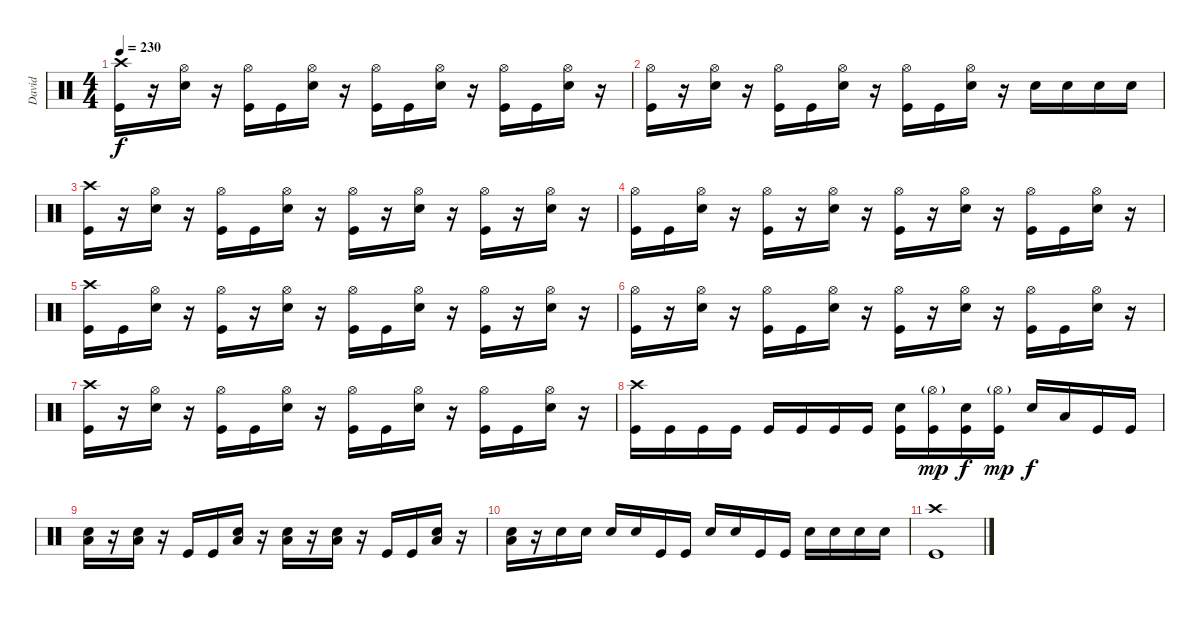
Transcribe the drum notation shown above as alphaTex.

\track ("David" "David") {instrument percussion}
\staff {score}
\articulation defaults
\ts (4 4)
\tempo 230
\clef neutral
\ks c
("Crash high (hit)" "Kick (hit)").16{dy f} r.16 ("Hi-Hat (open)" "Electric Snare (hit)").16 r.16 ("Hi-Hat (open)" "Kick (hit)").16 "Kick (hit)".16 ("Hi-Hat (open)" "Electric Snare (hit)").16 r.16 ("Hi-Hat (open)" "Kick (hit)").16 "Kick (hit)".16 ("Hi-Hat (open)" "Electric Snare (hit)").16 r.16 ("Hi-Hat (open)" "Kick (hit)").16 "Kick (hit)".16 ("Hi-Hat (open)" "Electric Snare (hit)").16 r.16 |
("Hi-Hat (open)" "Kick (hit)").16 r.16 ("Hi-Hat (open)" "Electric Snare (hit)").16 r.16 ("Hi-Hat (open)" "Kick (hit)").16 "Kick (hit)".16 ("Hi-Hat (open)" "Electric Snare (hit)").16 r.16 ("Hi-Hat (open)" "Kick (hit)").16 "Kick (hit)".16 ("Hi-Hat (open)" "Electric Snare (hit)").16 r.16 "Electric Snare (hit)".16 "Electric Snare (hit)".16 "Electric Snare (hit)".16 "Electric Snare (hit)".16 |
("Crash high (hit)" "Kick (hit)").16 r.16 ("Hi-Hat (open)" "Electric Snare (hit)").16 r.16 ("Hi-Hat (open)" "Kick (hit)").16 "Kick (hit)".16 ("Hi-Hat (open)" "Electric Snare (hit)").16 r.16 ("Hi-Hat (open)" "Kick (hit)").16 r.16 ("Hi-Hat (open)" "Electric Snare (hit)").16 r.16 ("Hi-Hat (open)" "Kick (hit)").16 r.16 ("Hi-Hat (open)" "Electric Snare (hit)").16 r.16 |
("Hi-Hat (open)" "Kick (hit)").16 "Kick (hit)".16 ("Hi-Hat (open)" "Electric Snare (hit)").16 r.16 ("Hi-Hat (open)" "Kick (hit)").16 r.16 ("Hi-Hat (open)" "Electric Snare (hit)").16 r.16 ("Hi-Hat (open)" "Kick (hit)").16 r.16 ("Hi-Hat (open)" "Electric Snare (hit)").16 r.16 ("Hi-Hat (open)" "Kick (hit)").16 "Kick (hit)".16 ("Hi-Hat (open)" "Electric Snare (hit)").16 r.16 |
("Crash high (hit)" "Kick (hit)").16 "Kick (hit)".16 ("Hi-Hat (open)" "Electric Snare (hit)").16 r.16 ("Hi-Hat (open)" "Kick (hit)").16 r.16 ("Hi-Hat (open)" "Electric Snare (hit)").16 r.16 ("Hi-Hat (open)" "Kick (hit)").16 "Kick (hit)".16 ("Hi-Hat (open)" "Electric Snare (hit)").16 r.16 ("Hi-Hat (open)" "Kick (hit)").16 r.16 ("Hi-Hat (open)" "Electric Snare (hit)").16 r.16 |
("Hi-Hat (open)" "Kick (hit)").16 r.16 ("Hi-Hat (open)" "Electric Snare (hit)").16 r.16 ("Hi-Hat (open)" "Kick (hit)").16 "Kick (hit)".16 ("Hi-Hat (open)" "Electric Snare (hit)").16 r.16 ("Hi-Hat (open)" "Kick (hit)").16 r.16 ("Hi-Hat (open)" "Electric Snare (hit)").16 r.16 ("Hi-Hat (open)" "Kick (hit)").16 "Kick (hit)".16 ("Hi-Hat (open)" "Electric Snare (hit)").16 r.16 |
("Crash high (hit)" "Kick (hit)").16 r.16 ("Hi-Hat (open)" "Electric Snare (hit)").16 r.16 ("Hi-Hat (open)" "Kick (hit)").16 "Kick (hit)".16 ("Hi-Hat (open)" "Electric Snare (hit)").16 r.16 ("Hi-Hat (open)" "Kick (hit)").16 "Kick (hit)".16 ("Hi-Hat (open)" "Electric Snare (hit)").16 r.16 ("Hi-Hat (open)" "Kick (hit)").16 "Kick (hit)".16 ("Hi-Hat (open)" "Electric Snare (hit)").16 r.16 |
("Crash high (hit)" "Kick (hit)").16 "Kick (hit)".16 "Kick (hit)".16 "Kick (hit)".16 "Kick (hit)".16 "Kick (hit)".16 "Kick (hit)".16 "Kick (hit)".16 ("Electric Snare (hit)" "Kick (hit)").16 ("Hi-Hat (open)"{g} "Kick (hit)").16{dy mp} ("Electric Snare (hit)" "Kick (hit)").16{dy f} ("Hi-Hat (open)"{g} "Kick (hit)").16{dy mp} "Electric Snare (hit)".16{dy f} "Low Tom (hit)".16 "Kick (hit)".16 "Kick (hit)".16 |
("Electric Snare (hit)" "Low Floor Tom (hit)").16 r.16 ("Electric Snare (hit)" "Low Floor Tom (hit)").16 r.16 "Kick (hit)".16 "Kick (hit)".16 ("Electric Snare (hit)" "Low Floor Tom (hit)").16 r.16 ("Electric Snare (hit)" "Low Floor Tom (hit)").16 r.16 ("Electric Snare (hit)" "Low Floor Tom (hit)").16 r.16 "Kick (hit)".16 "Kick (hit)".16 ("Electric Snare (hit)" "Low Floor Tom (hit)").16 r.16 |
("Low Floor Tom (hit)" "Electric Snare (hit)").16 r.16 "Electric Snare (hit)".16 "Electric Snare (hit)".16 "Electric Snare (hit)".16 "Electric Snare (hit)".16 "Kick (hit)".16 "Kick (hit)".16 "Electric Snare (hit)".16 "Electric Snare (hit)".16 "Kick (hit)".16 "Kick (hit)".16 "Electric Snare (hit)".16 "Electric Snare (hit)".16 "Electric Snare (hit)".16 "Electric Snare (hit)".16 |
("Crash high (hit)" "Kick (hit)").1
